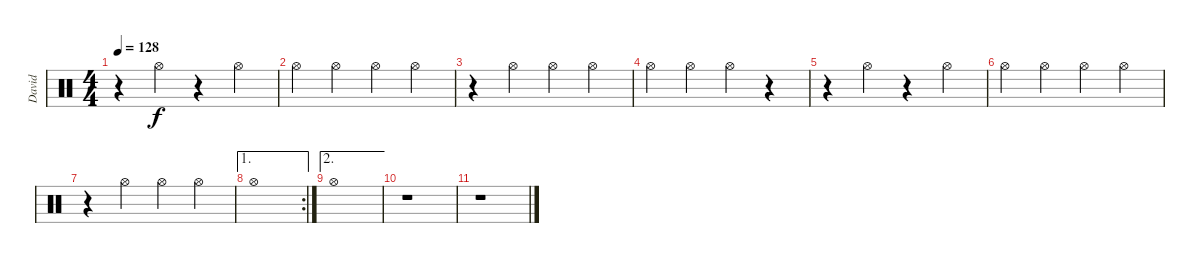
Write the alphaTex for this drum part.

\track ("David" "David") {instrument percussion}
\staff {score}
\articulation defaults
\ts (4 4)
\tempo 128
\clef neutral
\ks c
r.4{dy f} "Hi-Hat (open)".4 r.4 "Hi-Hat (open)".4 |
"Hi-Hat (open)".4 "Hi-Hat (open)".4 "Hi-Hat (open)".4 "Hi-Hat (open)".4 |
r.4 "Hi-Hat (open)".4 "Hi-Hat (open)".4 "Hi-Hat (open)".4 |
"Hi-Hat (open)".4 "Hi-Hat (open)".4 "Hi-Hat (open)".4 r.4 |
r.4 "Hi-Hat (open)".4 r.4 "Hi-Hat (open)".4 |
"Hi-Hat (open)".4 "Hi-Hat (open)".4 "Hi-Hat (open)".4 "Hi-Hat (open)".4 |
r.4 "Hi-Hat (open)".4 "Hi-Hat (open)".4 "Hi-Hat (open)".4 |
\ae 1
\rc 2 "Hi-Hat (open)".1
|
\ae 2 "Hi-Hat (open)".1
|
r.1 |
r.1
